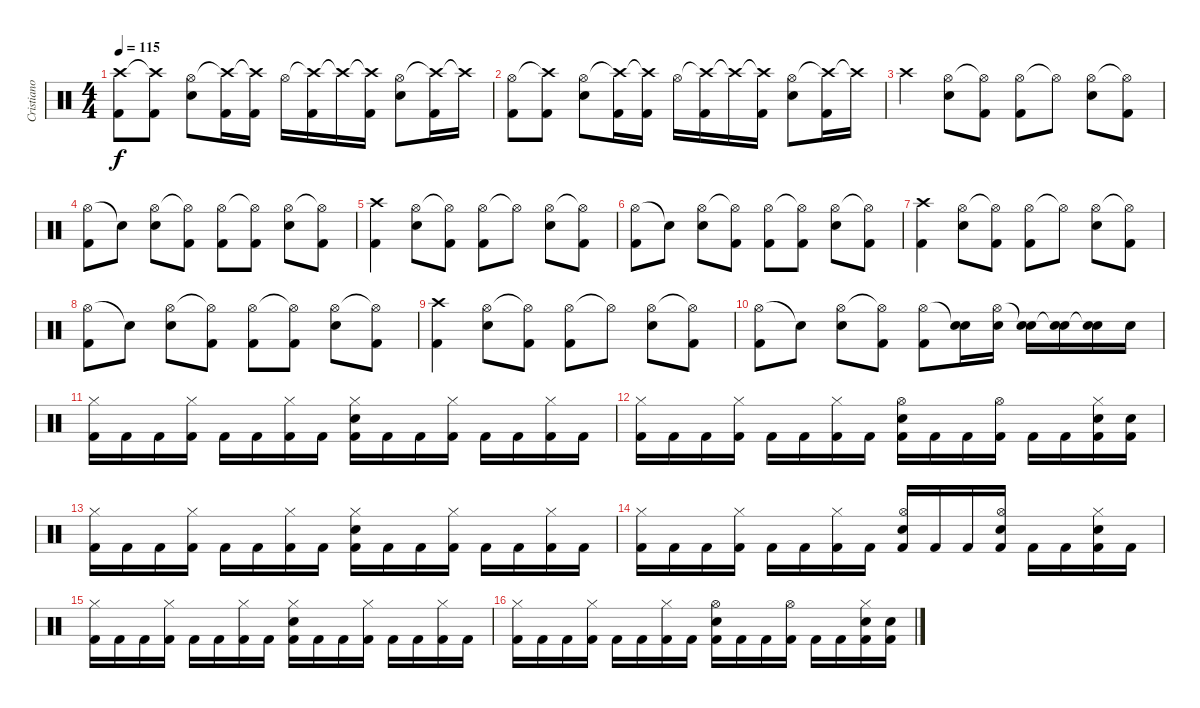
\track ("Cristiano Mozzati" "Cristiano ") {instrument percussion}
\staff {score}
\articulation defaults
\ts (4 4)
\tempo 115
\clef neutral
\ks c
("Crash high (hit)" "Kick (hit) 2").8{dy f} ("Crash high (hit)"{t} "Kick (hit) 2").8 ("Hi-Hat (open)" "Electric Snare (hit)").8 ("Crash high (hit)"{t} "Kick (hit) 2").16 ("Crash high (hit)"{t} "Kick (hit) 2").16 "Hi-Hat (open)".16 ("Crash high (hit)"{t} "Kick (hit) 2").16 "Crash high (hit)"{t}.16 ("Crash high (hit)"{t} "Kick (hit) 2").16 ("Hi-Hat (open)" "Electric Snare (hit)").8 ("Crash high (hit)"{t} "Kick (hit) 2").16 "Crash high (hit)"{t}.16 |
("Hi-Hat (open)" "Kick (hit) 2").8 ("Crash high (hit)"{t} "Kick (hit) 2").8 ("Hi-Hat (open)" "Electric Snare (hit)").8 ("Crash high (hit)"{t} "Kick (hit) 2").16 ("Crash high (hit)"{t} "Kick (hit) 2").16 "Hi-Hat (open)".16 ("Crash high (hit)"{t} "Kick (hit) 2").16 "Crash high (hit)"{t}.16 ("Crash high (hit)"{t} "Kick (hit) 2").16 ("Hi-Hat (open)" "Electric Snare (hit)").8 ("Crash high (hit)"{t} "Kick (hit) 2").16 "Crash high (hit)"{t}.16 |
"Crash high (hit)".4 ("Hi-Hat (open)" "Electric Snare (hit)").8 ("Hi-Hat (open)"{t} "Kick (hit) 2").8 ("Hi-Hat (open)" "Kick (hit) 2").8 "Hi-Hat (open)"{t}.8 ("Hi-Hat (open)" "Electric Snare (hit)").8 ("Hi-Hat (open)"{t} "Kick (hit) 2").8 |
("Hi-Hat (open)" "Kick (hit) 2").8 "Snare (hit)"{t}.8 ("Hi-Hat (open)" "Electric Snare (hit)").8 ("Hi-Hat (open)"{t} "Kick (hit) 2").8 ("Hi-Hat (open)" "Kick (hit) 2").8 ("Hi-Hat (open)"{t} "Kick (hit) 2").8 ("Hi-Hat (open)" "Electric Snare (hit)").8 ("Hi-Hat (open)"{t} "Kick (hit) 2").8 |
("Crash high (hit)" "Kick (hit) 2").4 ("Hi-Hat (open)" "Electric Snare (hit)").8 ("Hi-Hat (open)"{t} "Kick (hit) 2").8 ("Hi-Hat (open)" "Kick (hit) 2").8 "Hi-Hat (open)"{t}.8 ("Hi-Hat (open)" "Electric Snare (hit)").8 ("Hi-Hat (open)"{t} "Kick (hit) 2").8 |
("Hi-Hat (open)" "Kick (hit) 2").8 "Snare (hit)"{t}.8 ("Hi-Hat (open)" "Electric Snare (hit)").8 ("Hi-Hat (open)"{t} "Kick (hit) 2").8 ("Hi-Hat (open)" "Kick (hit) 2").8 ("Hi-Hat (open)"{t} "Kick (hit) 2").8 ("Hi-Hat (open)" "Electric Snare (hit)").8 ("Hi-Hat (open)"{t} "Kick (hit) 2").8 |
("Crash high (hit)" "Kick (hit) 2").4 ("Hi-Hat (open)" "Electric Snare (hit)").8 ("Hi-Hat (open)"{t} "Kick (hit) 2").8 ("Hi-Hat (open)" "Kick (hit) 2").8 "Hi-Hat (open)"{t}.8 ("Hi-Hat (open)" "Electric Snare (hit)").8 ("Hi-Hat (open)"{t} "Kick (hit) 2").8 |
("Hi-Hat (open)" "Kick (hit) 2").8 "Snare (hit)"{t}.8 ("Hi-Hat (open)" "Electric Snare (hit)").8 ("Hi-Hat (open)"{t} "Kick (hit) 2").8 ("Hi-Hat (open)" "Kick (hit) 2").8 ("Hi-Hat (open)"{t} "Kick (hit) 2").8 ("Hi-Hat (open)" "Electric Snare (hit)").8 ("Hi-Hat (open)"{t} "Kick (hit) 2").8 |
("Crash high (hit)" "Kick (hit) 2").4 ("Hi-Hat (open)" "Electric Snare (hit)").8 ("Hi-Hat (open)"{t} "Kick (hit) 2").8 ("Hi-Hat (open)" "Kick (hit) 2").8 "Hi-Hat (open)"{t}.8 ("Hi-Hat (open)" "Electric Snare (hit)").8 ("Hi-Hat (open)"{t} "Kick (hit) 2").8 |
("Hi-Hat (open)" "Kick (hit) 2").8 "Snare (hit)"{t}.8 ("Hi-Hat (open)" "Electric Snare (hit)").8 ("Hi-Hat (open)"{t} "Kick (hit) 2").8 ("Hi-Hat (open)" "Kick (hit) 2").8 ("Snare (hit)"{t} "Electric Snare (hit)").16 ("Hi-Hat (open)" "Electric Snare (hit)").16 ("Snare (hit)"{t} "Electric Snare (hit)").16 ("Snare (hit)"{t} "Electric Snare (hit)").16 ("Snare (hit)"{t} "Electric Snare (hit)").16 "Electric Snare (hit)".16 |
("Hi-Hat (closed)" "Kick (hit) 2").16 "Kick (hit) 2".16 "Kick (hit) 2".16 ("Hi-Hat (closed)" "Kick (hit) 2").16 "Kick (hit) 2".16 "Kick (hit) 2".16 ("Hi-Hat (closed)" "Kick (hit) 2").16 "Kick (hit) 2".16 ("Hi-Hat (closed)" "Electric Snare (hit)" "Kick (hit) 2").16 "Kick (hit) 2".16 "Kick (hit) 2".16 ("Hi-Hat (closed)" "Kick (hit) 2").16 "Kick (hit) 2".16 "Kick (hit) 2".16 ("Hi-Hat (closed)" "Kick (hit) 2").16 "Kick (hit) 2".16 |
("Hi-Hat (closed)" "Kick (hit) 2").16 "Kick (hit) 2".16 "Kick (hit) 2".16 ("Hi-Hat (closed)" "Kick (hit) 2").16 "Kick (hit) 2".16 "Kick (hit) 2".16 ("Hi-Hat (closed)" "Kick (hit) 2").16 "Kick (hit) 2".16 ("Hi-Hat (open)" "Electric Snare (hit)" "Kick (hit) 2").16 "Kick (hit) 2".16 "Kick (hit) 2".16 ("Hi-Hat (open)" "Kick (hit) 2").16 "Kick (hit) 2".16 "Kick (hit) 2".16 ("Hi-Hat (closed)" "Electric Snare (hit)" "Kick (hit) 2").16 ("Electric Snare (hit)" "Kick (hit) 2").16 |
("Hi-Hat (closed)" "Kick (hit) 2").16 "Kick (hit) 2".16 "Kick (hit) 2".16 ("Hi-Hat (closed)" "Kick (hit) 2").16 "Kick (hit) 2".16 "Kick (hit) 2".16 ("Hi-Hat (closed)" "Kick (hit) 2").16 "Kick (hit) 2".16 ("Hi-Hat (closed)" "Electric Snare (hit)" "Kick (hit) 2").16 "Kick (hit) 2".16 "Kick (hit) 2".16 ("Hi-Hat (closed)" "Kick (hit) 2").16 "Kick (hit) 2".16 "Kick (hit) 2".16 ("Hi-Hat (closed)" "Kick (hit) 2").16 "Kick (hit) 2".16 |
("Hi-Hat (closed)" "Kick (hit) 2").16 "Kick (hit) 2".16 "Kick (hit) 2".16 ("Hi-Hat (closed)" "Kick (hit) 2").16 "Kick (hit) 2".16 "Kick (hit) 2".16 ("Hi-Hat (closed)" "Kick (hit) 2").16 "Kick (hit) 2".16 ("Hi-Hat (open)" "Electric Snare (hit)" "Kick (hit) 2").16 "Kick (hit) 2".16 "Kick (hit) 2".16 ("Hi-Hat (open)" "Electric Snare (hit)" "Kick (hit) 2").16 "Kick (hit) 2".16 "Kick (hit) 2".16 ("Hi-Hat (closed)" "Electric Snare (hit)" "Kick (hit) 2").16 "Kick (hit) 2".16 |
("Hi-Hat (closed)" "Kick (hit) 2").16 "Kick (hit) 2".16 "Kick (hit) 2".16 ("Hi-Hat (closed)" "Kick (hit) 2").16 "Kick (hit) 2".16 "Kick (hit) 2".16 ("Hi-Hat (closed)" "Kick (hit) 2").16 "Kick (hit) 2".16 ("Hi-Hat (closed)" "Electric Snare (hit)" "Kick (hit) 2").16 "Kick (hit) 2".16 "Kick (hit) 2".16 ("Hi-Hat (closed)" "Kick (hit) 2").16 "Kick (hit) 2".16 "Kick (hit) 2".16 ("Hi-Hat (closed)" "Kick (hit) 2").16 "Kick (hit) 2".16 |
("Hi-Hat (closed)" "Kick (hit) 2").16 "Kick (hit) 2".16 "Kick (hit) 2".16 ("Hi-Hat (closed)" "Kick (hit) 2").16 "Kick (hit) 2".16 "Kick (hit) 2".16 ("Hi-Hat (closed)" "Kick (hit) 2").16 "Kick (hit) 2".16 ("Hi-Hat (open)" "Electric Snare (hit)" "Kick (hit) 2").16 "Kick (hit) 2".16 "Kick (hit) 2".16 ("Hi-Hat (open)" "Kick (hit) 2").16 "Kick (hit) 2".16 "Kick (hit) 2".16 ("Hi-Hat (closed)" "Electric Snare (hit)" "Kick (hit) 2").16 ("Electric Snare (hit)" "Kick (hit) 2").16
